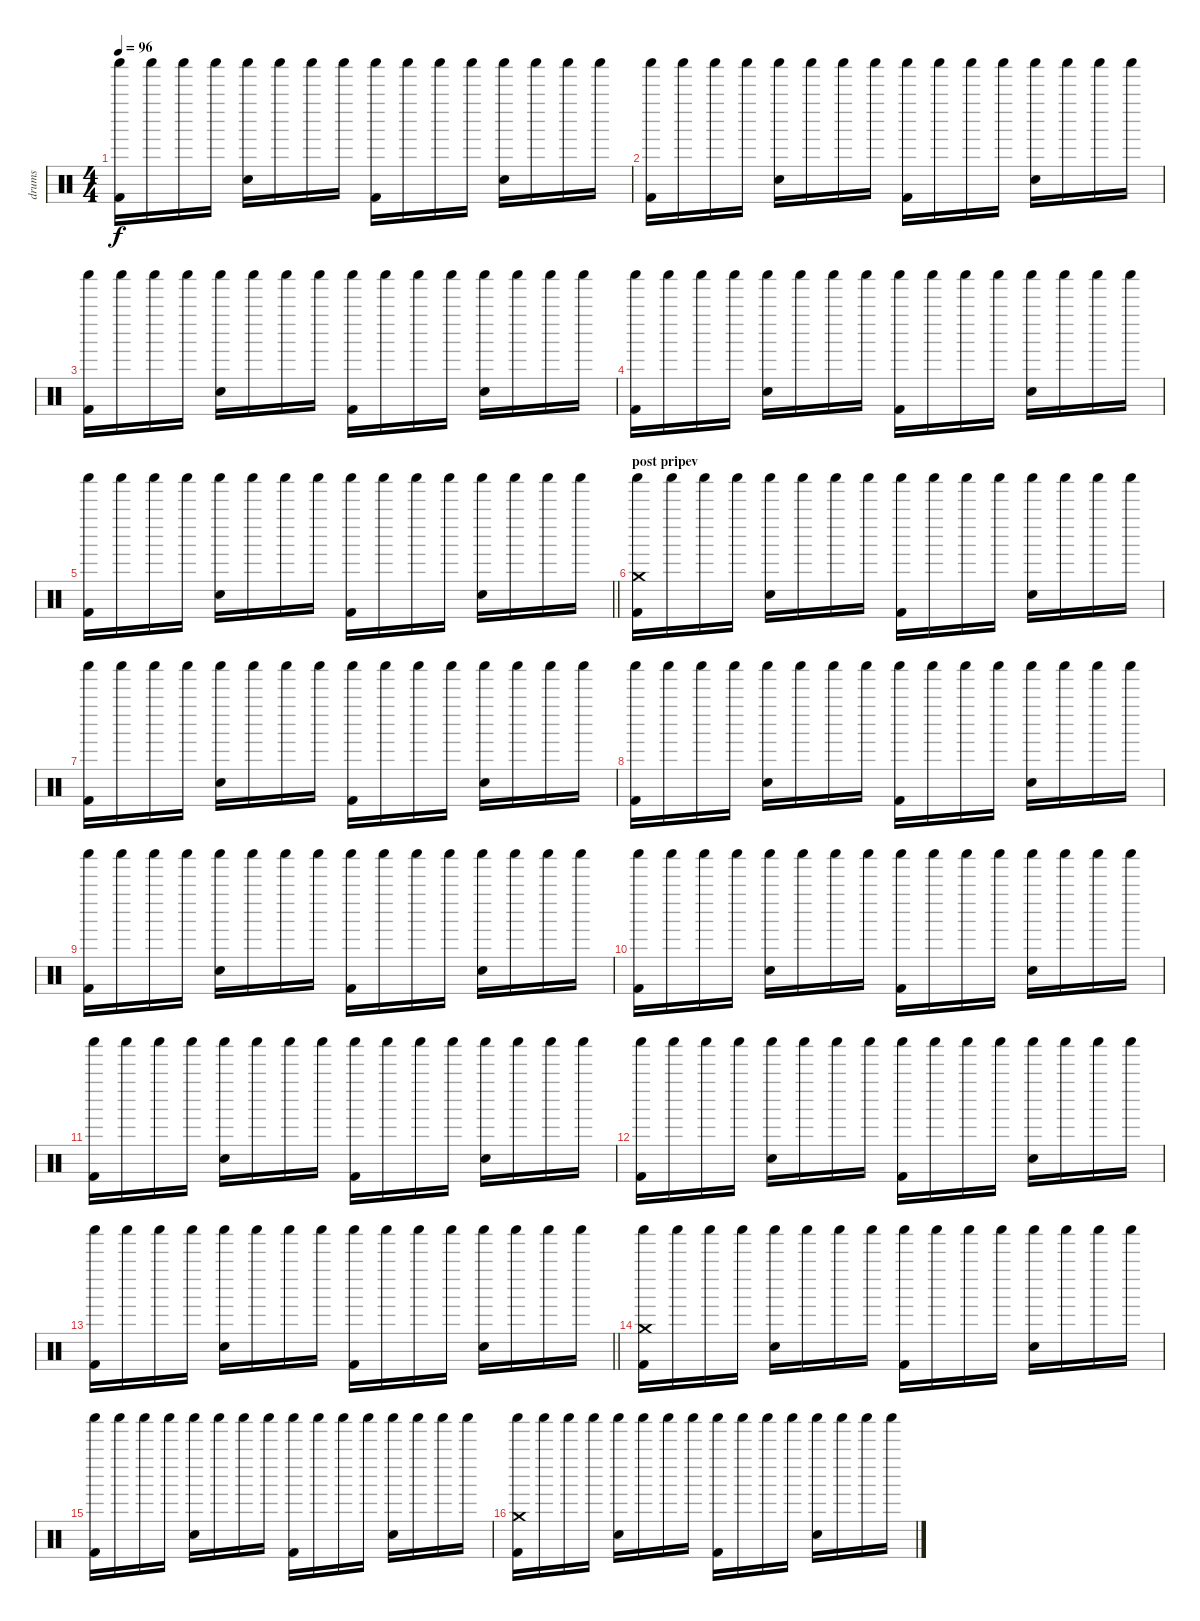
\track ("drums" "drums") {instrument percussion}
\staff {score}
\articulation defaults
\ts (4 4)
\tempo 96
\clef neutral
\ks c
("Shaker (hit)" "Kick (hit) 2").16{dy f} "Shaker (hit)".16 "Shaker (hit)".16 "Shaker (hit)".16 ("Shaker (hit)" "Electric Snare (hit)").16 "Shaker (hit)".16 "Shaker (hit)".16 "Shaker (hit)".16 ("Shaker (hit)" "Kick (hit) 2").16 "Shaker (hit)".16 "Shaker (hit)".16 "Shaker (hit)".16 ("Shaker (hit)" "Electric Snare (hit)").16 "Shaker (hit)".16 "Shaker (hit)".16 "Shaker (hit)".16 |
("Shaker (hit)" "Kick (hit) 2").16 "Shaker (hit)".16 "Shaker (hit)".16 "Shaker (hit)".16 ("Shaker (hit)" "Electric Snare (hit)").16 "Shaker (hit)".16 "Shaker (hit)".16 "Shaker (hit)".16 ("Shaker (hit)" "Kick (hit) 2").16 "Shaker (hit)".16 "Shaker (hit)".16 "Shaker (hit)".16 ("Shaker (hit)" "Electric Snare (hit)").16 "Shaker (hit)".16 "Shaker (hit)".16 "Shaker (hit)".16 |
("Shaker (hit)" "Kick (hit) 2").16 "Shaker (hit)".16 "Shaker (hit)".16 "Shaker (hit)".16 ("Shaker (hit)" "Electric Snare (hit)").16 "Shaker (hit)".16 "Shaker (hit)".16 "Shaker (hit)".16 ("Shaker (hit)" "Kick (hit) 2").16 "Shaker (hit)".16 "Shaker (hit)".16 "Shaker (hit)".16 ("Shaker (hit)" "Electric Snare (hit)").16 "Shaker (hit)".16 "Shaker (hit)".16 "Shaker (hit)".16 |
("Shaker (hit)" "Kick (hit) 2").16 "Shaker (hit)".16 "Shaker (hit)".16 "Shaker (hit)".16 ("Shaker (hit)" "Electric Snare (hit)").16 "Shaker (hit)".16 "Shaker (hit)".16 "Shaker (hit)".16 ("Shaker (hit)" "Kick (hit) 2").16 "Shaker (hit)".16 "Shaker (hit)".16 "Shaker (hit)".16 ("Shaker (hit)" "Electric Snare (hit)").16 "Shaker (hit)".16 "Shaker (hit)".16 "Shaker (hit)".16 |
\barLineRight lightlight
("Shaker (hit)" "Kick (hit) 2").16 "Shaker (hit)".16 "Shaker (hit)".16 "Shaker (hit)".16 ("Shaker (hit)" "Electric Snare (hit)").16 "Shaker (hit)".16 "Shaker (hit)".16 "Shaker (hit)".16 ("Shaker (hit)" "Kick (hit) 2").16 "Shaker (hit)".16 "Shaker (hit)".16 "Shaker (hit)".16 ("Shaker (hit)" "Electric Snare (hit)").16 "Shaker (hit)".16 "Shaker (hit)".16 "Shaker (hit)".16 |
\section ("" "post pripev")
("Shaker (hit)" "Kick (hit) 2" "Crash medium (hit)").16 "Shaker (hit)".16 "Shaker (hit)".16 "Shaker (hit)".16 ("Shaker (hit)" "Electric Snare (hit)").16 "Shaker (hit)".16 "Shaker (hit)".16 "Shaker (hit)".16 ("Shaker (hit)" "Kick (hit) 2").16 "Shaker (hit)".16 "Shaker (hit)".16 "Shaker (hit)".16 ("Shaker (hit)" "Electric Snare (hit)").16 "Shaker (hit)".16 "Shaker (hit)".16 "Shaker (hit)".16 |
("Shaker (hit)" "Kick (hit) 2").16 "Shaker (hit)".16 "Shaker (hit)".16 "Shaker (hit)".16 ("Shaker (hit)" "Electric Snare (hit)").16 "Shaker (hit)".16 "Shaker (hit)".16 "Shaker (hit)".16 ("Shaker (hit)" "Kick (hit) 2").16 "Shaker (hit)".16 "Shaker (hit)".16 "Shaker (hit)".16 ("Shaker (hit)" "Electric Snare (hit)").16 "Shaker (hit)".16 "Shaker (hit)".16 "Shaker (hit)".16 |
("Shaker (hit)" "Kick (hit) 2").16 "Shaker (hit)".16 "Shaker (hit)".16 "Shaker (hit)".16 ("Shaker (hit)" "Electric Snare (hit)").16 "Shaker (hit)".16 "Shaker (hit)".16 "Shaker (hit)".16 ("Shaker (hit)" "Kick (hit) 2").16 "Shaker (hit)".16 "Shaker (hit)".16 "Shaker (hit)".16 ("Shaker (hit)" "Electric Snare (hit)").16 "Shaker (hit)".16 "Shaker (hit)".16 "Shaker (hit)".16 |
("Shaker (hit)" "Kick (hit) 2").16 "Shaker (hit)".16 "Shaker (hit)".16 "Shaker (hit)".16 ("Shaker (hit)" "Electric Snare (hit)").16 "Shaker (hit)".16 "Shaker (hit)".16 "Shaker (hit)".16 ("Shaker (hit)" "Kick (hit) 2").16 "Shaker (hit)".16 "Shaker (hit)".16 "Shaker (hit)".16 ("Shaker (hit)" "Electric Snare (hit)").16 "Shaker (hit)".16 "Shaker (hit)".16 "Shaker (hit)".16 |
("Shaker (hit)" "Kick (hit) 2").16 "Shaker (hit)".16 "Shaker (hit)".16 "Shaker (hit)".16 ("Shaker (hit)" "Electric Snare (hit)").16 "Shaker (hit)".16 "Shaker (hit)".16 "Shaker (hit)".16 ("Shaker (hit)" "Kick (hit) 2").16 "Shaker (hit)".16 "Shaker (hit)".16 "Shaker (hit)".16 ("Shaker (hit)" "Electric Snare (hit)").16 "Shaker (hit)".16 "Shaker (hit)".16 "Shaker (hit)".16 |
("Shaker (hit)" "Kick (hit) 2").16 "Shaker (hit)".16 "Shaker (hit)".16 "Shaker (hit)".16 ("Shaker (hit)" "Electric Snare (hit)").16 "Shaker (hit)".16 "Shaker (hit)".16 "Shaker (hit)".16 ("Shaker (hit)" "Kick (hit) 2").16 "Shaker (hit)".16 "Shaker (hit)".16 "Shaker (hit)".16 ("Shaker (hit)" "Electric Snare (hit)").16 "Shaker (hit)".16 "Shaker (hit)".16 "Shaker (hit)".16 |
("Shaker (hit)" "Kick (hit) 2").16 "Shaker (hit)".16 "Shaker (hit)".16 "Shaker (hit)".16 ("Shaker (hit)" "Electric Snare (hit)").16 "Shaker (hit)".16 "Shaker (hit)".16 "Shaker (hit)".16 ("Shaker (hit)" "Kick (hit) 2").16 "Shaker (hit)".16 "Shaker (hit)".16 "Shaker (hit)".16 ("Shaker (hit)" "Electric Snare (hit)").16 "Shaker (hit)".16 "Shaker (hit)".16 "Shaker (hit)".16 |
\barLineRight lightlight
("Shaker (hit)" "Kick (hit) 2").16 "Shaker (hit)".16 "Shaker (hit)".16 "Shaker (hit)".16 ("Shaker (hit)" "Electric Snare (hit)").16 "Shaker (hit)".16 "Shaker (hit)".16 "Shaker (hit)".16 ("Shaker (hit)" "Kick (hit) 2").16 "Shaker (hit)".16 "Shaker (hit)".16 "Shaker (hit)".16 ("Shaker (hit)" "Electric Snare (hit)").16 "Shaker (hit)".16 "Shaker (hit)".16 "Shaker (hit)".16 |
("Shaker (hit)" "Kick (hit) 2" "Crash medium (hit)").16 "Shaker (hit)".16 "Shaker (hit)".16 "Shaker (hit)".16 ("Shaker (hit)" "Electric Snare (hit)").16 "Shaker (hit)".16 "Shaker (hit)".16 "Shaker (hit)".16 ("Shaker (hit)" "Kick (hit) 2").16 "Shaker (hit)".16 "Shaker (hit)".16 "Shaker (hit)".16 ("Shaker (hit)" "Electric Snare (hit)").16 "Shaker (hit)".16 "Shaker (hit)".16 "Shaker (hit)".16 |
("Shaker (hit)" "Kick (hit) 2").16 "Shaker (hit)".16 "Shaker (hit)".16 "Shaker (hit)".16 ("Shaker (hit)" "Electric Snare (hit)").16 "Shaker (hit)".16 "Shaker (hit)".16 "Shaker (hit)".16 ("Shaker (hit)" "Kick (hit) 2").16 "Shaker (hit)".16 "Shaker (hit)".16 "Shaker (hit)".16 ("Shaker (hit)" "Electric Snare (hit)").16 "Shaker (hit)".16 "Shaker (hit)".16 "Shaker (hit)".16 |
("Shaker (hit)" "Kick (hit) 2" "Crash medium (hit)").16 "Shaker (hit)".16 "Shaker (hit)".16 "Shaker (hit)".16 ("Shaker (hit)" "Electric Snare (hit)").16 "Shaker (hit)".16 "Shaker (hit)".16 "Shaker (hit)".16 ("Shaker (hit)" "Kick (hit) 2").16 "Shaker (hit)".16 "Shaker (hit)".16 "Shaker (hit)".16 ("Shaker (hit)" "Electric Snare (hit)").16 "Shaker (hit)".16 "Shaker (hit)".16 "Shaker (hit)".16
